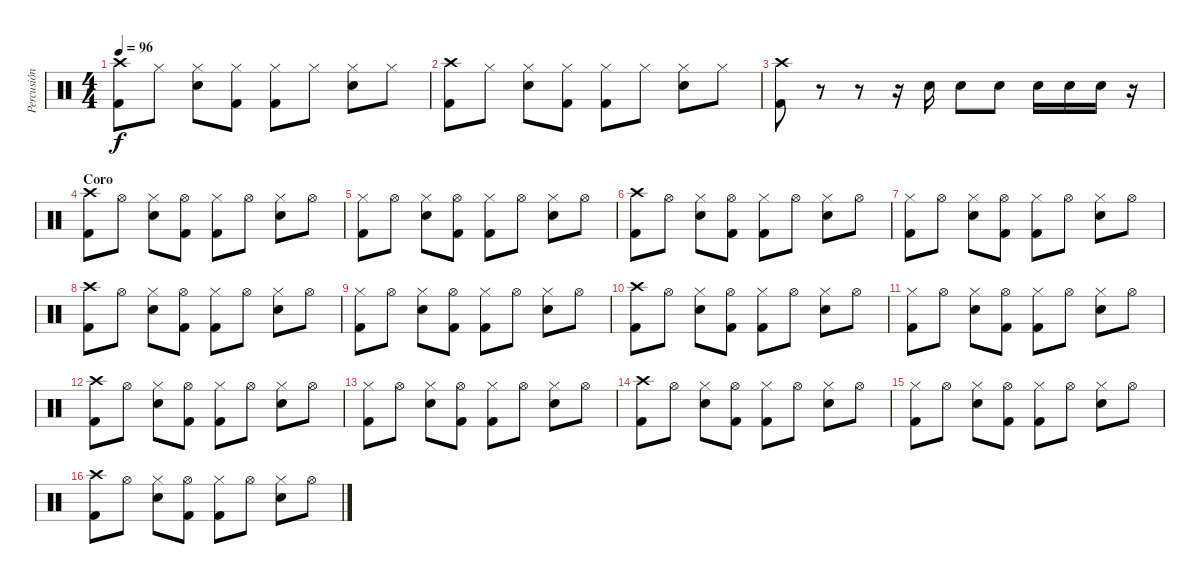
\track ("Percusión" "Percusión") {instrument percussion}
\staff {score}
\articulation defaults
\ts (4 4)
\tempo 96
\clef neutral
\ks c
("Kick (hit) 2" "Crash high (hit)").8{dy f} "Hi-Hat (closed)".8 ("Snare (hit) 2" "Hi-Hat (closed)").8 ("Kick (hit) 2" "Hi-Hat (closed)").8 ("Kick (hit) 2" "Hi-Hat (closed)").8 "Hi-Hat (closed)".8 ("Snare (hit) 2" "Hi-Hat (closed)").8 "Hi-Hat (closed)".8 |
("Kick (hit) 2" "Crash high (hit)").8 "Hi-Hat (closed)".8 ("Snare (hit) 2" "Hi-Hat (closed)").8 ("Kick (hit) 2" "Hi-Hat (closed)").8 ("Kick (hit) 2" "Hi-Hat (closed)").8 "Hi-Hat (closed)".8 ("Snare (hit) 2" "Hi-Hat (closed)").8 "Hi-Hat (closed)".8 |
("Kick (hit) 2" "Crash high (hit)").8 r.8 r.8 r.16 "Snare (hit) 2".16 "Snare (hit) 2".8 "Snare (hit) 2".8 "Snare (hit) 2".16 "Snare (hit) 2".16 "Snare (hit) 2".16 r.16 |
\section ("" "Coro")
("Kick (hit) 2" "Crash high (hit)").8 "Hi-Hat (open)".8 ("Snare (hit) 2" "Hi-Hat (closed)").8 ("Kick (hit) 2" "Hi-Hat (open)").8 ("Kick (hit) 2" "Hi-Hat (closed)").8 "Hi-Hat (open)".8 ("Snare (hit) 2" "Hi-Hat (closed)").8 "Hi-Hat (open)".8 |
("Kick (hit) 2" "Hi-Hat (closed)").8 "Hi-Hat (open)".8 ("Snare (hit) 2" "Hi-Hat (closed)").8 ("Kick (hit) 2" "Hi-Hat (open)").8 ("Kick (hit) 2" "Hi-Hat (closed)").8 "Hi-Hat (open)".8 ("Snare (hit) 2" "Hi-Hat (closed)").8 "Hi-Hat (open)".8 |
("Kick (hit) 2" "Crash high (hit)").8 "Hi-Hat (open)".8 ("Snare (hit) 2" "Hi-Hat (closed)").8 ("Kick (hit) 2" "Hi-Hat (open)").8 ("Kick (hit) 2" "Hi-Hat (closed)").8 "Hi-Hat (open)".8 ("Snare (hit) 2" "Hi-Hat (closed)").8 "Hi-Hat (open)".8 |
("Kick (hit) 2" "Hi-Hat (closed)").8 "Hi-Hat (open)".8 ("Snare (hit) 2" "Hi-Hat (closed)").8 ("Kick (hit) 2" "Hi-Hat (open)").8 ("Kick (hit) 2" "Hi-Hat (closed)").8 "Hi-Hat (open)".8 ("Snare (hit) 2" "Hi-Hat (closed)").8 "Hi-Hat (open)".8 |
("Kick (hit) 2" "Crash high (hit)").8 "Hi-Hat (open)".8 ("Snare (hit) 2" "Hi-Hat (closed)").8 ("Kick (hit) 2" "Hi-Hat (open)").8 ("Kick (hit) 2" "Hi-Hat (closed)").8 "Hi-Hat (open)".8 ("Snare (hit) 2" "Hi-Hat (closed)").8 "Hi-Hat (open)".8 |
("Kick (hit) 2" "Hi-Hat (closed)").8 "Hi-Hat (open)".8 ("Snare (hit) 2" "Hi-Hat (closed)").8 ("Kick (hit) 2" "Hi-Hat (open)").8 ("Kick (hit) 2" "Hi-Hat (closed)").8 "Hi-Hat (open)".8 ("Snare (hit) 2" "Hi-Hat (closed)").8 "Hi-Hat (open)".8 |
("Kick (hit) 2" "Crash high (hit)").8 "Hi-Hat (open)".8 ("Snare (hit) 2" "Hi-Hat (closed)").8 ("Kick (hit) 2" "Hi-Hat (open)").8 ("Kick (hit) 2" "Hi-Hat (closed)").8 "Hi-Hat (open)".8 ("Snare (hit) 2" "Hi-Hat (closed)").8 "Hi-Hat (open)".8 |
("Kick (hit) 2" "Hi-Hat (closed)").8 "Hi-Hat (open)".8 ("Snare (hit) 2" "Hi-Hat (closed)").8 ("Kick (hit) 2" "Hi-Hat (open)").8 ("Kick (hit) 2" "Hi-Hat (closed)").8 "Hi-Hat (open)".8 ("Snare (hit) 2" "Hi-Hat (closed)").8 "Hi-Hat (open)".8 |
("Kick (hit) 2" "Crash high (hit)").8 "Hi-Hat (open)".8 ("Snare (hit) 2" "Hi-Hat (closed)").8 ("Kick (hit) 2" "Hi-Hat (open)").8 ("Kick (hit) 2" "Hi-Hat (closed)").8 "Hi-Hat (open)".8 ("Snare (hit) 2" "Hi-Hat (closed)").8 "Hi-Hat (open)".8 |
("Kick (hit) 2" "Hi-Hat (closed)").8 "Hi-Hat (open)".8 ("Snare (hit) 2" "Hi-Hat (closed)").8 ("Kick (hit) 2" "Hi-Hat (open)").8 ("Kick (hit) 2" "Hi-Hat (closed)").8 "Hi-Hat (open)".8 ("Snare (hit) 2" "Hi-Hat (closed)").8 "Hi-Hat (open)".8 |
("Kick (hit) 2" "Crash high (hit)").8 "Hi-Hat (open)".8 ("Snare (hit) 2" "Hi-Hat (closed)").8 ("Kick (hit) 2" "Hi-Hat (open)").8 ("Kick (hit) 2" "Hi-Hat (closed)").8 "Hi-Hat (open)".8 ("Snare (hit) 2" "Hi-Hat (closed)").8 "Hi-Hat (open)".8 |
("Kick (hit) 2" "Hi-Hat (closed)").8 "Hi-Hat (open)".8 ("Snare (hit) 2" "Hi-Hat (closed)").8 ("Kick (hit) 2" "Hi-Hat (open)").8 ("Kick (hit) 2" "Hi-Hat (closed)").8 "Hi-Hat (open)".8 ("Snare (hit) 2" "Hi-Hat (closed)").8 "Hi-Hat (open)".8 |
("Kick (hit) 2" "Crash high (hit)").8 "Hi-Hat (open)".8 ("Snare (hit) 2" "Hi-Hat (closed)").8 ("Kick (hit) 2" "Hi-Hat (open)").8 ("Kick (hit) 2" "Hi-Hat (closed)").8 "Hi-Hat (open)".8 ("Snare (hit) 2" "Hi-Hat (closed)").8 "Hi-Hat (open)".8
